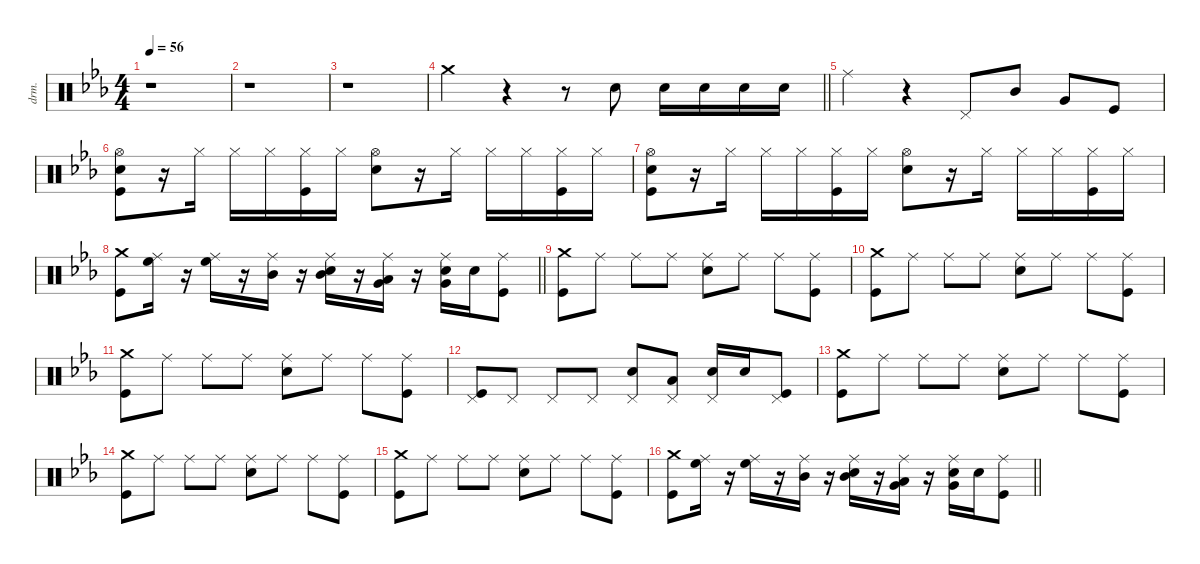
\defaultSystemsLayout 4
\hideDynamics
\bracketExtendMode nobrackets
\otherSystemsTrackNameOrientation horizontal
\track ("Percussion" "drm.") {instrument percussion}
\staff {score}
\articulation defaults
\ts (4 4)
\beaming (8 2 2 2 2)
\tempo 56
\clef neutral
\ks cminor
r.1{dy f beam Down} |
r.1{beam Down} |
r.1{beam Down} |
\barLineRight lightlight "Crash medium (hit)"{acc forcenatural}.4{beam Down}
r.4{beam Down} r.8{beam Down} "Snare (hit) 2"{acc forcenatural}.8{beam Down} "Snare (hit) 2"{acc forcenatural}.16{beam Down} "Snare (hit) 2"{acc forcenatural}.16{beam Down} "Snare (hit) 2"{acc forcenatural}.16{beam Down} "Snare (hit) 2"{acc forcenatural}.16{beam Down} |
"Ride (middle)"{acc forcenatural}.4{beam Down} r.4{beam Down} "Pedal Hi-Hat (hit)"{acc forcenatural}.8{beam Up} "Mid Tom (hit)"{acc forcenatural}.8{beam Up} "Very Low Tom (hit)"{acc forcenatural}.8{beam Up} "Kick (hit)"{acc forcenatural}.8{beam Up} |
("Hi-Hat (open)"{acc forcenatural} "Kick (hit)"{acc forcenatural} "Snare (hit) 2"{acc forcenatural}).8{beam Down} r.16{beam Down} "Hi-Hat (closed)"{acc forcenatural}.16{beam Down} "Hi-Hat (closed)"{acc forcenatural}.16{beam Down} "Hi-Hat (closed)"{acc forcenatural}.16{beam Down} ("Kick (hit)"{acc forcenatural} "Hi-Hat (closed)"{acc forcenatural}).16{beam Down} "Hi-Hat (closed)"{acc forcenatural}.16{beam Down} ("Snare (hit) 2"{acc forcenatural} "Hi-Hat (open)"{acc forcenatural}).8{beam Down} r.16{beam Down} "Hi-Hat (closed)"{acc forcenatural}.16{beam Down} "Hi-Hat (closed)"{acc forcenatural}.16{beam Down} "Hi-Hat (closed)"{acc forcenatural}.16{beam Down} ("Kick (hit)"{acc forcenatural} "Hi-Hat (closed)"{acc forcenatural}).16{beam Down} "Hi-Hat (closed)"{acc forcenatural}.16{beam Down} |
("Hi-Hat (open)"{acc forcenatural} "Kick (hit)"{acc forcenatural} "Snare (hit) 2"{acc forcenatural}).8{beam Down} r.16{beam Down} "Hi-Hat (closed)"{acc forcenatural}.16{beam Down} "Hi-Hat (closed)"{acc forcenatural}.16{beam Down} "Hi-Hat (closed)"{acc forcenatural}.16{beam Down} ("Kick (hit)"{acc forcenatural} "Hi-Hat (closed)"{acc forcenatural}).16{beam Down} "Hi-Hat (closed)"{acc forcenatural}.16{beam Down} ("Snare (hit) 2"{acc forcenatural} "Hi-Hat (open)"{acc forcenatural}).8{beam Down} r.16{beam Down} "Hi-Hat (closed)"{acc forcenatural}.16{beam Down} "Hi-Hat (closed)"{acc forcenatural}.16{beam Down} "Hi-Hat (closed)"{acc forcenatural}.16{beam Down} ("Kick (hit)"{acc forcenatural} "Hi-Hat (closed)"{acc forcenatural}).16{beam Down} "Hi-Hat (closed)"{acc forcenatural}.16{beam Down} |
\barLineRight lightlight
("Crash medium (hit)"{acc forcenatural} "Kick (hit)"{acc forcenatural}).8{beam Down} ("High Floor Tom (hit)"{acc forcenatural} "Ride (middle)"{acc forcenatural}).16{beam Down} r.16{beam Down} ("High Floor Tom (hit)"{acc forcenatural} "Ride (middle)"{acc forcenatural}).16{beam Down} r.16{beam Down} ("Mid Tom (hit)"{acc forcenatural} "Ride (middle)"{acc forcenatural}).16{beam Down} r.16{beam Down} ("Mid Tom (hit)"{acc forcenatural} "Snare (hit) 2"{acc forcenatural} "Ride (middle)"{acc forcenatural}).16{beam Down} r.16{beam Down} ("Very Low Tom (hit)"{acc forcenatural} "Low Floor Tom (hit)"{acc forcenatural} "Ride (middle)"{acc forcenatural}).16{beam Down} r.16{beam Down} ("Very Low Tom (hit)"{acc forcenatural} "Snare (hit) 2"{acc forcenatural} "Ride (middle)"{acc forcenatural}).16{beam Down} "Snare (hit) 2"{acc forcenatural}.16{beam Down} ("Kick (hit)"{acc forcenatural} "Ride (middle)"{acc forcenatural}).8{beam Down} |
("Crash medium (hit)"{acc forcenatural} "Kick (hit)"{acc forcenatural}).8{beam Down} "Ride (middle)"{acc forcenatural}.8{beam Down} "Ride (middle)"{acc forcenatural}.8{beam Down} "Ride (middle)"{acc forcenatural}.8{beam Down} ("Snare (hit) 2"{acc forcenatural} "Ride (middle)"{acc forcenatural}).8{beam Down} "Ride (middle)"{acc forcenatural}.8{beam Down} "Ride (middle)"{acc forcenatural}.8{beam Down} ("Kick (hit)"{acc forcenatural} "Ride (middle)"{acc forcenatural}).8{beam Down} |
("Crash medium (hit)"{acc forcenatural} "Kick (hit)"{acc forcenatural}).8{beam Down} "Ride (middle)"{acc forcenatural}.8{beam Down} "Ride (middle)"{acc forcenatural}.8{beam Down} "Ride (middle)"{acc forcenatural}.8{beam Down} ("Snare (hit) 2"{acc forcenatural} "Ride (middle)"{acc forcenatural}).8{beam Down} "Ride (middle)"{acc forcenatural}.8{beam Down} "Ride (middle)"{acc forcenatural}.8{beam Down} ("Kick (hit)"{acc forcenatural} "Ride (middle)"{acc forcenatural}).8{beam Down} |
("Crash medium (hit)"{acc forcenatural} "Kick (hit)"{acc forcenatural}).8{beam Down} "Ride (middle)"{acc forcenatural}.8{beam Down} "Ride (middle)"{acc forcenatural}.8{beam Down} "Ride (middle)"{acc forcenatural}.8{beam Down} ("Snare (hit) 2"{acc forcenatural} "Ride (middle)"{acc forcenatural}).8{beam Down} "Ride (middle)"{acc forcenatural}.8{beam Down} "Ride (middle)"{acc forcenatural}.8{beam Down} ("Kick (hit)"{acc forcenatural} "Ride (middle)"{acc forcenatural}).8{beam Down} |
("Pedal Hi-Hat (hit)"{acc forcenatural} "Kick (hit)"{acc forcenatural}).8{beam Up} "Pedal Hi-Hat (hit)"{acc forcenatural}.8{beam Up} "Pedal Hi-Hat (hit)"{acc forcenatural}.8{beam Up} "Pedal Hi-Hat (hit)"{acc forcenatural}.8{beam Up} ("Snare (hit) 2"{acc forcenatural} "Pedal Hi-Hat (hit)"{acc forcenatural}).8{beam Up} ("Low Floor Tom (hit)"{acc forcenatural} "Pedal Hi-Hat (hit)"{acc forcenatural}).8{beam Up} ("Snare (hit) 2"{acc forcenatural} "Pedal Hi-Hat (hit)"{acc forcenatural}).16{beam Up} "Snare (hit) 2"{acc forcenatural}.16{beam Up} ("Kick (hit)"{acc forcenatural} "Pedal Hi-Hat (hit)"{acc forcenatural}).8{beam Up} |
("Crash medium (hit)"{acc forcenatural} "Kick (hit)"{acc forcenatural}).8{beam Down} "Ride (middle)"{acc forcenatural}.8{beam Down} "Ride (middle)"{acc forcenatural}.8{beam Down} "Ride (middle)"{acc forcenatural}.8{beam Down} ("Snare (hit) 2"{acc forcenatural} "Ride (middle)"{acc forcenatural}).8{beam Down} "Ride (middle)"{acc forcenatural}.8{beam Down} "Ride (middle)"{acc forcenatural}.8{beam Down} ("Kick (hit)"{acc forcenatural} "Ride (middle)"{acc forcenatural}).8{beam Down} |
("Crash medium (hit)"{acc forcenatural} "Kick (hit)"{acc forcenatural}).8{beam Down} "Ride (middle)"{acc forcenatural}.8{beam Down} "Ride (middle)"{acc forcenatural}.8{beam Down} "Ride (middle)"{acc forcenatural}.8{beam Down} ("Snare (hit) 2"{acc forcenatural} "Ride (middle)"{acc forcenatural}).8{beam Down} "Ride (middle)"{acc forcenatural}.8{beam Down} "Ride (middle)"{acc forcenatural}.8{beam Down} ("Kick (hit)"{acc forcenatural} "Ride (middle)"{acc forcenatural}).8{beam Down} |
("Crash medium (hit)"{acc forcenatural} "Kick (hit)"{acc forcenatural}).8{beam Down} "Ride (middle)"{acc forcenatural}.8{beam Down} "Ride (middle)"{acc forcenatural}.8{beam Down} "Ride (middle)"{acc forcenatural}.8{beam Down} ("Snare (hit) 2"{acc forcenatural} "Ride (middle)"{acc forcenatural}).8{beam Down} "Ride (middle)"{acc forcenatural}.8{beam Down} "Ride (middle)"{acc forcenatural}.8{beam Down} ("Kick (hit)"{acc forcenatural} "Ride (middle)"{acc forcenatural}).8{beam Down} |
\barLineRight lightlight
("Crash medium (hit)"{acc forcenatural} "Kick (hit)"{acc forcenatural}).8{beam Down} ("High Floor Tom (hit)"{acc forcenatural} "Ride (middle)"{acc forcenatural}).16{beam Down} r.16{beam Down} ("High Floor Tom (hit)"{acc forcenatural} "Ride (middle)"{acc forcenatural}).16{beam Down} r.16{beam Down} ("Mid Tom (hit)"{acc forcenatural} "Ride (middle)"{acc forcenatural}).16{beam Down} r.16{beam Down} ("Mid Tom (hit)"{acc forcenatural} "Snare (hit) 2"{acc forcenatural} "Ride (middle)"{acc forcenatural}).16{beam Down} r.16{beam Down} ("Very Low Tom (hit)"{acc forcenatural} "Low Floor Tom (hit)"{acc forcenatural} "Ride (middle)"{acc forcenatural}).16{beam Down} r.16{beam Down} ("Very Low Tom (hit)"{acc forcenatural} "Snare (hit) 2"{acc forcenatural} "Ride (middle)"{acc forcenatural}).16{beam Down} "Snare (hit) 2"{acc forcenatural}.16{beam Down} ("Kick (hit)"{acc forcenatural} "Ride (middle)"{acc forcenatural}).8{beam Down}
